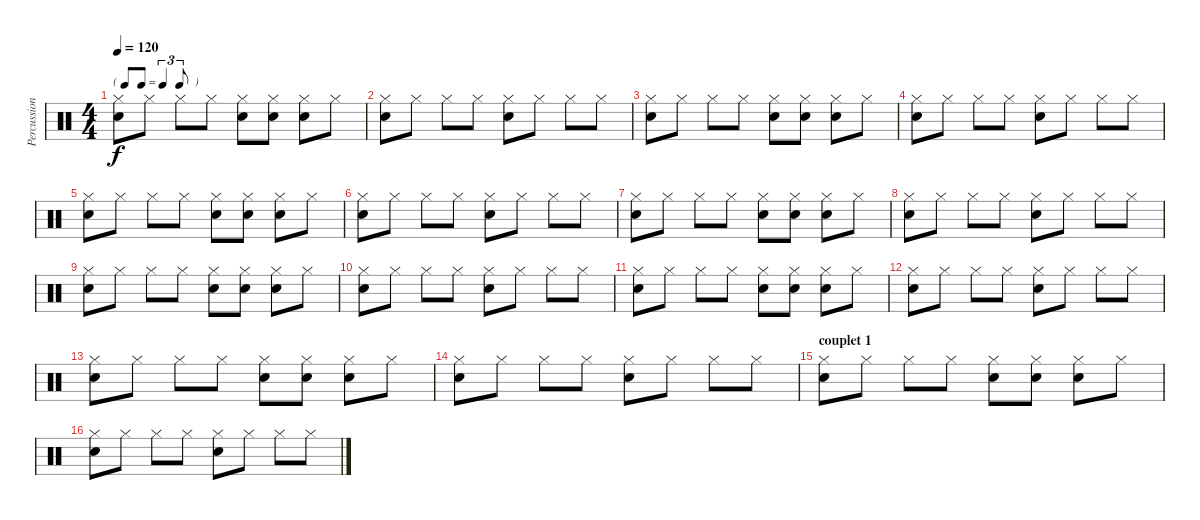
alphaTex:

\track ("Percussions" "Percussion") {instrument percussion}
\staff {score}
\articulation defaults
\ts (4 4)
\tf triplet8th
\tempo 120
\clef neutral
\ks c
("Electric Snare (hit)" "Hi-Hat (closed)").8{dy f} "Hi-Hat (closed)".8 "Hi-Hat (closed)".8 "Hi-Hat (closed)".8 ("Electric Snare (hit)" "Hi-Hat (closed)").8 ("Electric Snare (hit)" "Hi-Hat (closed)").8 ("Electric Snare (hit)" "Hi-Hat (closed)").8 "Hi-Hat (closed)".8 |
("Electric Snare (hit)" "Hi-Hat (closed)").8 "Hi-Hat (closed)".8 "Hi-Hat (closed)".8 "Hi-Hat (closed)".8 ("Electric Snare (hit)" "Hi-Hat (closed)").8 "Hi-Hat (closed)".8 "Hi-Hat (closed)".8 "Hi-Hat (closed)".8 |
("Electric Snare (hit)" "Hi-Hat (closed)").8 "Hi-Hat (closed)".8 "Hi-Hat (closed)".8 "Hi-Hat (closed)".8 ("Electric Snare (hit)" "Hi-Hat (closed)").8 ("Electric Snare (hit)" "Hi-Hat (closed)").8 ("Electric Snare (hit)" "Hi-Hat (closed)").8 "Hi-Hat (closed)".8 |
("Electric Snare (hit)" "Hi-Hat (closed)").8 "Hi-Hat (closed)".8 "Hi-Hat (closed)".8 "Hi-Hat (closed)".8 ("Electric Snare (hit)" "Hi-Hat (closed)").8 "Hi-Hat (closed)".8 "Hi-Hat (closed)".8 "Hi-Hat (closed)".8 |
("Electric Snare (hit)" "Hi-Hat (closed)").8 "Hi-Hat (closed)".8 "Hi-Hat (closed)".8 "Hi-Hat (closed)".8 ("Electric Snare (hit)" "Hi-Hat (closed)").8 ("Electric Snare (hit)" "Hi-Hat (closed)").8 ("Electric Snare (hit)" "Hi-Hat (closed)").8 "Hi-Hat (closed)".8 |
("Electric Snare (hit)" "Hi-Hat (closed)").8 "Hi-Hat (closed)".8 "Hi-Hat (closed)".8 "Hi-Hat (closed)".8 ("Electric Snare (hit)" "Hi-Hat (closed)").8 "Hi-Hat (closed)".8 "Hi-Hat (closed)".8 "Hi-Hat (closed)".8 |
("Electric Snare (hit)" "Hi-Hat (closed)").8 "Hi-Hat (closed)".8 "Hi-Hat (closed)".8 "Hi-Hat (closed)".8 ("Electric Snare (hit)" "Hi-Hat (closed)").8 ("Electric Snare (hit)" "Hi-Hat (closed)").8 ("Electric Snare (hit)" "Hi-Hat (closed)").8 "Hi-Hat (closed)".8 |
("Electric Snare (hit)" "Hi-Hat (closed)").8 "Hi-Hat (closed)".8 "Hi-Hat (closed)".8 "Hi-Hat (closed)".8 ("Electric Snare (hit)" "Hi-Hat (closed)").8 "Hi-Hat (closed)".8 "Hi-Hat (closed)".8 "Hi-Hat (closed)".8 |
("Electric Snare (hit)" "Hi-Hat (closed)").8 "Hi-Hat (closed)".8 "Hi-Hat (closed)".8 "Hi-Hat (closed)".8 ("Electric Snare (hit)" "Hi-Hat (closed)").8 ("Electric Snare (hit)" "Hi-Hat (closed)").8 ("Electric Snare (hit)" "Hi-Hat (closed)").8 "Hi-Hat (closed)".8 |
("Electric Snare (hit)" "Hi-Hat (closed)").8 "Hi-Hat (closed)".8 "Hi-Hat (closed)".8 "Hi-Hat (closed)".8 ("Electric Snare (hit)" "Hi-Hat (closed)").8 "Hi-Hat (closed)".8 "Hi-Hat (closed)".8 "Hi-Hat (closed)".8 |
("Electric Snare (hit)" "Hi-Hat (closed)").8 "Hi-Hat (closed)".8 "Hi-Hat (closed)".8 "Hi-Hat (closed)".8 ("Electric Snare (hit)" "Hi-Hat (closed)").8 ("Electric Snare (hit)" "Hi-Hat (closed)").8 ("Electric Snare (hit)" "Hi-Hat (closed)").8 "Hi-Hat (closed)".8 |
("Electric Snare (hit)" "Hi-Hat (closed)").8 "Hi-Hat (closed)".8 "Hi-Hat (closed)".8 "Hi-Hat (closed)".8 ("Electric Snare (hit)" "Hi-Hat (closed)").8 "Hi-Hat (closed)".8 "Hi-Hat (closed)".8 "Hi-Hat (closed)".8 |
("Electric Snare (hit)" "Hi-Hat (closed)").8 "Hi-Hat (closed)".8 "Hi-Hat (closed)".8 "Hi-Hat (closed)".8 ("Electric Snare (hit)" "Hi-Hat (closed)").8 ("Electric Snare (hit)" "Hi-Hat (closed)").8 ("Electric Snare (hit)" "Hi-Hat (closed)").8 "Hi-Hat (closed)".8 |
("Electric Snare (hit)" "Hi-Hat (closed)").8 "Hi-Hat (closed)".8 "Hi-Hat (closed)".8 "Hi-Hat (closed)".8 ("Electric Snare (hit)" "Hi-Hat (closed)").8 "Hi-Hat (closed)".8 "Hi-Hat (closed)".8 "Hi-Hat (closed)".8 |
\section ("" "couplet 1")
("Electric Snare (hit)" "Hi-Hat (closed)").8 "Hi-Hat (closed)".8 "Hi-Hat (closed)".8 "Hi-Hat (closed)".8 ("Electric Snare (hit)" "Hi-Hat (closed)").8 ("Electric Snare (hit)" "Hi-Hat (closed)").8 ("Electric Snare (hit)" "Hi-Hat (closed)").8 "Hi-Hat (closed)".8 |
("Electric Snare (hit)" "Hi-Hat (closed)").8 "Hi-Hat (closed)".8 "Hi-Hat (closed)".8 "Hi-Hat (closed)".8 ("Electric Snare (hit)" "Hi-Hat (closed)").8 "Hi-Hat (closed)".8 "Hi-Hat (closed)".8 "Hi-Hat (closed)".8
